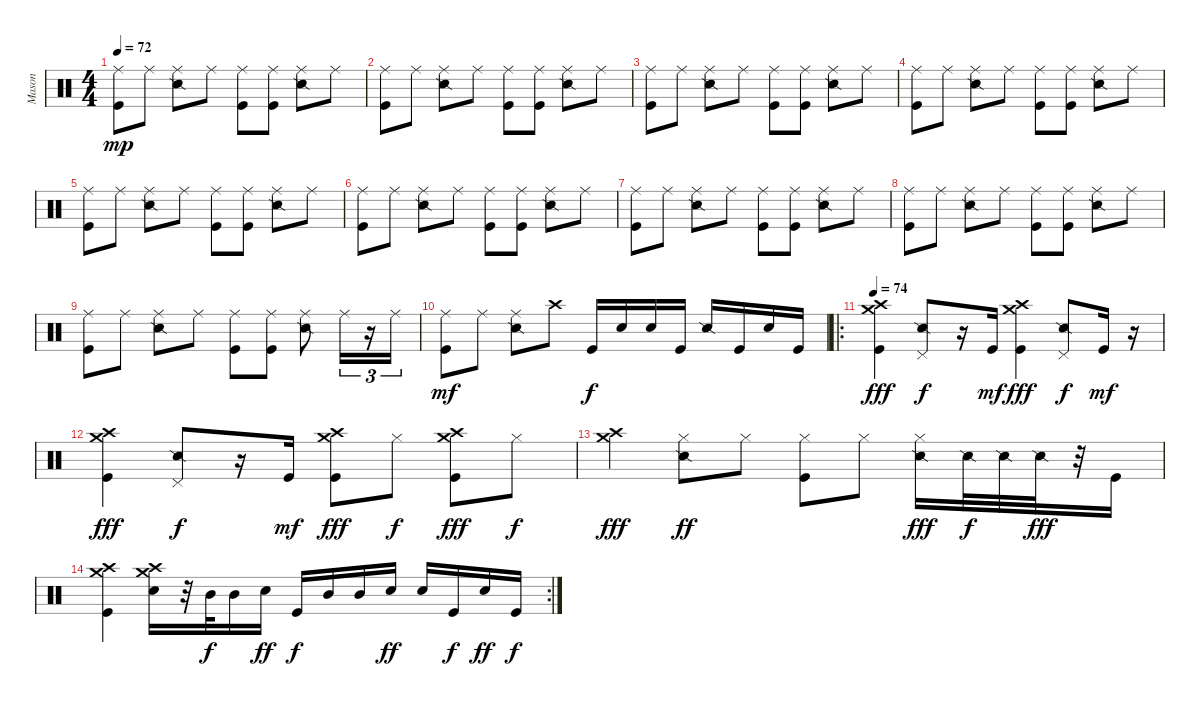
\track ("Mason" "Mason") {instrument percussion}
\staff {score}
\articulation defaults
\ts (4 4)
\tempo 72
\clef neutral
\ks c
("Ride (middle)" "Kick (hit)").8{dy mp} "Ride (middle)".8 ("Ride (middle)" "Snare (side stick) 2").8 "Ride (middle)".8 ("Ride (middle)" "Kick (hit)").8 ("Ride (middle)" "Kick (hit)").8 ("Ride (middle)" "Snare (side stick) 2").8 "Ride (middle)".8 |
("Ride (middle)" "Kick (hit)").8 "Ride (middle)".8 ("Ride (middle)" "Snare (side stick) 2").8 "Ride (middle)".8 ("Ride (middle)" "Kick (hit)").8 ("Ride (middle)" "Kick (hit)").8 ("Ride (middle)" "Snare (side stick) 2").8 "Ride (middle)".8 |
("Ride (middle)" "Kick (hit)").8 "Ride (middle)".8 ("Ride (middle)" "Snare (side stick) 2").8 "Ride (middle)".8 ("Ride (middle)" "Kick (hit)").8 ("Ride (middle)" "Kick (hit)").8 ("Ride (middle)" "Snare (side stick) 2").8 "Ride (middle)".8 |
("Ride (middle)" "Kick (hit)").8 "Ride (middle)".8 ("Ride (middle)" "Snare (side stick) 2").8 "Ride (middle)".8 ("Ride (middle)" "Kick (hit)").8 ("Ride (middle)" "Kick (hit)").8 ("Ride (middle)" "Snare (side stick) 2").8 "Ride (middle)".8 |
("Ride (middle)" "Kick (hit)").8 "Ride (middle)".8 ("Ride (middle)" "Snare (side stick) 2").8 "Ride (middle)".8 ("Ride (middle)" "Kick (hit)").8 ("Ride (middle)" "Kick (hit)").8 ("Ride (middle)" "Snare (side stick) 2").8 "Ride (middle)".8 |
("Ride (middle)" "Kick (hit)").8 "Ride (middle)".8 ("Ride (middle)" "Snare (side stick) 2").8 "Ride (middle)".8 ("Ride (middle)" "Kick (hit)").8 ("Ride (middle)" "Kick (hit)").8 ("Ride (middle)" "Snare (side stick) 2").8 "Ride (middle)".8 |
("Ride (middle)" "Kick (hit)").8 "Ride (middle)".8 ("Ride (middle)" "Snare (side stick) 2").8 "Ride (middle)".8 ("Ride (middle)" "Kick (hit)").8 ("Ride (middle)" "Kick (hit)").8 ("Ride (middle)" "Snare (side stick) 2").8 "Ride (middle)".8 |
("Ride (middle)" "Kick (hit)").8 "Ride (middle)".8 ("Ride (middle)" "Snare (side stick) 2").8 "Ride (middle)".8 ("Ride (middle)" "Kick (hit)").8 ("Ride (middle)" "Kick (hit)").8 ("Ride (middle)" "Snare (side stick) 2").8 "Ride (middle)".8 |
("Ride (middle)" "Kick (hit)").8 "Ride (middle)".8 ("Ride (middle)" "Snare (side stick) 2").8 "Ride (middle)".8 ("Ride (middle)" "Kick (hit)").8 ("Ride (middle)" "Kick (hit)").8 ("Ride (middle)" "Snare (side stick) 2").8 "Ride (middle)".16{tu (3 2)} r.16{tu (3 2)} "Ride (middle)".16{tu (3 2)} |
("Ride (middle)" "Kick (hit)").8{dy mf} "Ride (middle)".8 ("Ride (middle)" "Snare (side stick) 2").8 "Crash high (hit)".8 "Kick (hit)".16{dy f} "Electric Snare (hit)".16 "Electric Snare (hit)".16 "Kick (hit)".16 "Snare (side stick) 2".16 "Kick (hit)".16 "Snare (hit) 2".16 "Kick (hit)".16 |
\ro
\tempo 74
("Crash medium (hit)" "Crash high (hit)" "Kick (hit)").4{dy fff} ("Pedal Hi-Hat (hit)" "Snare (side stick) 2").8{dy f} r.16 "Kick (hit)".16{dy mf} ("Crash medium (hit)" "Crash high (hit)" "Kick (hit)").4{dy fff} ("Pedal Hi-Hat (hit)" "Snare (side stick) 2").8{dy f} "Kick (hit)".16{dy mf} r.16 |
("Crash medium (hit)" "Crash high (hit)" "Kick (hit)").4{dy fff} ("Pedal Hi-Hat (hit)" "Snare (side stick) 2").8{dy f} r.16 "Kick (hit)".16{dy mf} ("Crash medium (hit)" "Crash high (hit)" "Kick (hit)").8{dy fff} "Hi-Hat (closed)".8{dy f} ("Crash medium (hit)" "Crash high (hit)" "Kick (hit)").8{dy fff} "Hi-Hat (closed)".8{dy f} |
("Crash medium (hit)" "Crash high (hit)").4{dy fff} ("Hi-Hat (closed)" "Snare (side stick) 2").8{dy ff} "Hi-Hat (closed)".8 ("Hi-Hat (closed)" "Kick (hit)").8 "Hi-Hat (closed)".8 ("Hi-Hat (closed)" "Snare (side stick) 2").16{dy fff} "Snare (side stick) 2".32{dy f} "Snare (side stick) 2".32 "Snare (side stick) 2".32{dy fff} r.32 "Kick (hit)".16 |
\rc 2
("Crash medium (hit)" "Crash high (hit)" "Kick (hit)").4 ("Crash high (hit)" "Electric Snare (hit)" "Crash medium (hit)").16 r.32 "Mid Tom (hit)".32{dy f} "Mid Tom (hit)".16 "Electric Snare (hit)".16{dy ff} "Kick (hit)".16{dy f} "Mid Tom (hit)".16 "Mid Tom (hit)".16 "Electric Snare (hit)".16{dy ff} "Electric Snare (hit)".16 "Kick (hit)".16{dy f} "Electric Snare (hit)".16{dy ff} "Kick (hit)".16{dy f}
